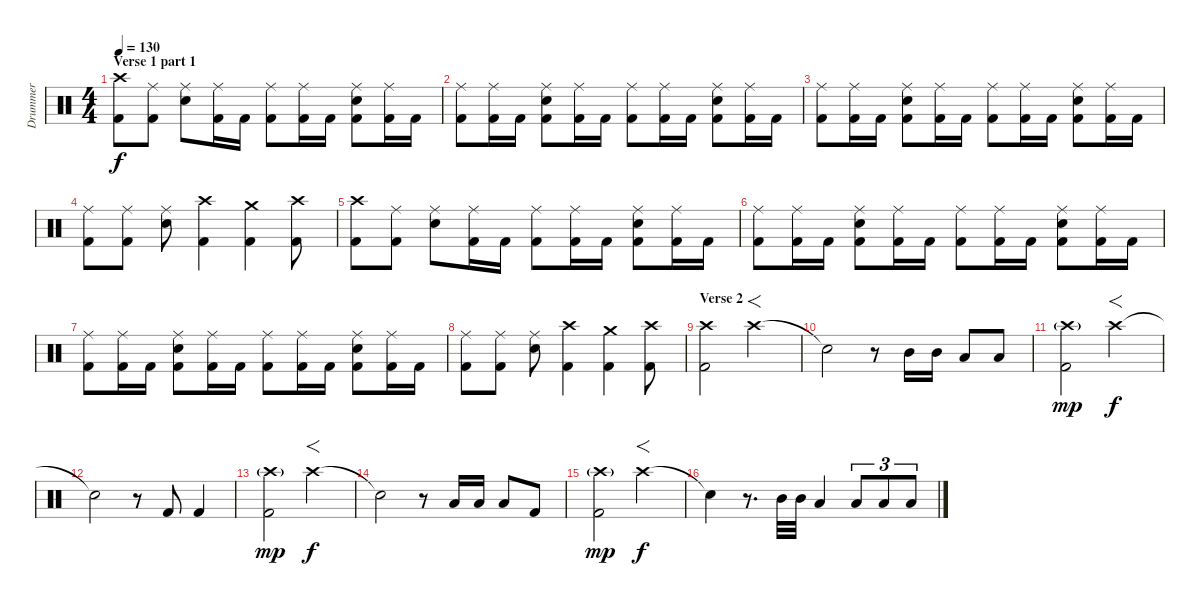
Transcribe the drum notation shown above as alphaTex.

\track ("Drummer" "Drummer") {instrument percussion}
\staff {score}
\articulation defaults
\ts (4 4)
\section ("" "Verse 1 part 1")
\tempo 130
\clef neutral
\ks c
("Crash high (hit)" "Kick (hit) 2").8{dy f} ("Ride (middle)" "Kick (hit) 2").8 ("Ride (middle)" "Snare (hit) 2").8 ("Ride (middle)" "Kick (hit) 2").16 "Kick (hit) 2".16 ("Ride (middle)" "Kick (hit) 2").8 ("Ride (middle)" "Kick (hit) 2").16 "Kick (hit) 2".16 ("Ride (middle)" "Snare (hit) 2" "Kick (hit) 2").8 ("Ride (middle)" "Kick (hit) 2").16 "Kick (hit) 2".16 |
("Ride (middle)" "Kick (hit) 2").8 ("Ride (middle)" "Kick (hit) 2").16 "Kick (hit) 2".16 ("Ride (middle)" "Snare (hit) 2" "Kick (hit) 2").8 ("Ride (middle)" "Kick (hit) 2").16 "Kick (hit) 2".16 ("Ride (middle)" "Kick (hit) 2").8 ("Ride (middle)" "Kick (hit) 2").16 "Kick (hit) 2".16 ("Ride (middle)" "Snare (hit) 2" "Kick (hit) 2").8 ("Ride (middle)" "Kick (hit) 2").16 "Kick (hit) 2".16 |
("Ride (middle)" "Kick (hit) 2").8 ("Ride (middle)" "Kick (hit) 2").16 "Kick (hit) 2".16 ("Ride (middle)" "Snare (hit) 2" "Kick (hit) 2").8 ("Ride (middle)" "Kick (hit) 2").16 "Kick (hit) 2".16 ("Ride (middle)" "Kick (hit) 2").8 ("Ride (middle)" "Kick (hit) 2").16 "Kick (hit) 2".16 ("Ride (middle)" "Snare (hit) 2" "Kick (hit) 2").8 ("Ride (middle)" "Kick (hit) 2").16 "Kick (hit) 2".16 |
("Ride (middle)" "Kick (hit) 2").8 ("Ride (middle)" "Kick (hit) 2").8 ("Ride (middle)" "Snare (hit) 2").8 ("Crash high (hit)" "Kick (hit) 2").4 ("Crash medium (hit)" "Kick (hit) 2").4 ("Crash high (hit)" "Kick (hit) 2").8 |
("Crash high (hit)" "Kick (hit) 2").8 ("Ride (middle)" "Kick (hit) 2").8 ("Ride (middle)" "Snare (hit) 2").8 ("Ride (middle)" "Kick (hit) 2").16 "Kick (hit) 2".16 ("Ride (middle)" "Kick (hit) 2").8 ("Ride (middle)" "Kick (hit) 2").16 "Kick (hit) 2".16 ("Ride (middle)" "Snare (hit) 2" "Kick (hit) 2").8 ("Ride (middle)" "Kick (hit) 2").16 "Kick (hit) 2".16 |
("Ride (middle)" "Kick (hit) 2").8 ("Ride (middle)" "Kick (hit) 2").16 "Kick (hit) 2".16 ("Ride (middle)" "Snare (hit) 2" "Kick (hit) 2").8 ("Ride (middle)" "Kick (hit) 2").16 "Kick (hit) 2".16 ("Ride (middle)" "Kick (hit) 2").8 ("Ride (middle)" "Kick (hit) 2").16 "Kick (hit) 2".16 ("Ride (middle)" "Snare (hit) 2" "Kick (hit) 2").8 ("Ride (middle)" "Kick (hit) 2").16 "Kick (hit) 2".16 |
("Ride (middle)" "Kick (hit) 2").8 ("Ride (middle)" "Kick (hit) 2").16 "Kick (hit) 2".16 ("Ride (middle)" "Snare (hit) 2" "Kick (hit) 2").8 ("Ride (middle)" "Kick (hit) 2").16 "Kick (hit) 2".16 ("Ride (middle)" "Kick (hit) 2").8 ("Ride (middle)" "Kick (hit) 2").16 "Kick (hit) 2".16 ("Ride (middle)" "Snare (hit) 2" "Kick (hit) 2").8 ("Ride (middle)" "Kick (hit) 2").16 "Kick (hit) 2".16 |
("Ride (middle)" "Kick (hit) 2").8 ("Ride (middle)" "Kick (hit) 2").8 ("Ride (middle)" "Snare (hit) 2").8 ("Crash high (hit)" "Kick (hit) 2").4 ("Crash medium (hit)" "Kick (hit) 2").4 ("Crash high (hit)" "Kick (hit) 2").8 |
\section ("" "Verse 2")
("Crash high (hit)" "Kick (hit) 2").2 "Crash high (hit)".2{f} |
"Snare (hit)"{t}.2 r.8 "Mid Tom (hit)".16 "Mid Tom (hit)".16 "Low Tom (hit)".8 "Low Tom (hit)".8 |
("Crash high (hit)"{g} "Kick (hit) 2").2{dy mp} "Crash high (hit)".2{f dy f} |
"Snare (hit)"{t}.2 r.8 "Kick (hit) 2".8 "Kick (hit) 2".4 |
("Crash high (hit)"{g} "Kick (hit) 2").2{dy mp} "Crash high (hit)".2{f dy f} |
"Snare (hit)"{t}.2 r.8 "Low Tom (hit)".16 "Low Tom (hit)".16 "Low Tom (hit)".8 "Kick (hit) 2".8 |
("Crash high (hit)"{g} "Kick (hit) 2").2{dy mp} "Crash high (hit)".2{f dy f} |
"Snare (hit)"{t}.4 r.8{d} "Mid Tom (hit)".32 "Mid Tom (hit)".32 "Low Tom (hit)".4 "Low Tom (hit)".8{tu (3 2)} "Low Tom (hit)".8{tu (3 2)} "Low Tom (hit)".8{tu (3 2)}
